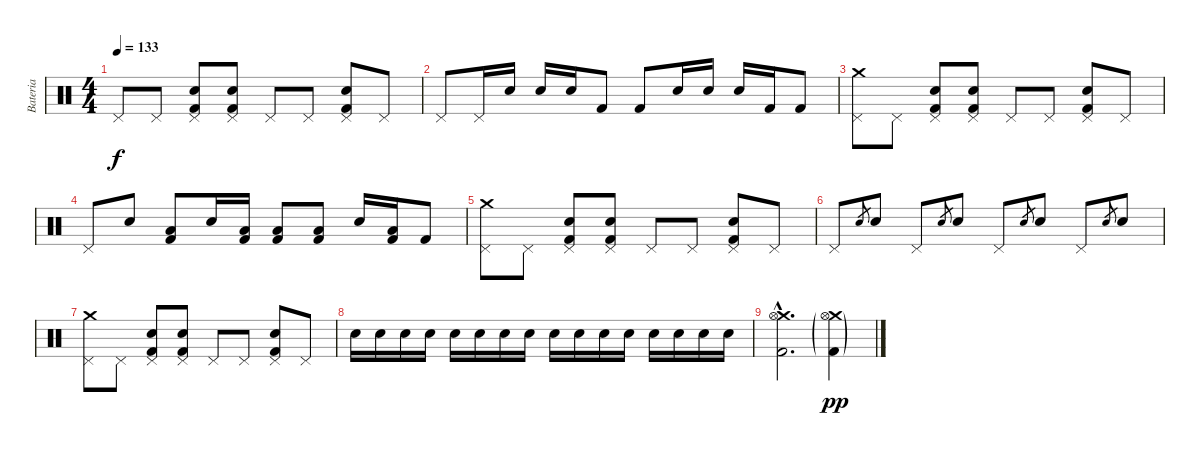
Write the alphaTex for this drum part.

\track ("Bateria" "Bateria") {instrument percussion}
\staff {score}
\articulation defaults
\ts (4 4)
\tempo 133
\clef neutral
\ks c "Pedal Hi-Hat (hit)".8{dy f} "Pedal Hi-Hat (hit)".8
("Kick (hit) 2" "Pedal Hi-Hat (hit)" "Electric Snare (hit)").8 ("Kick (hit) 2" "Pedal Hi-Hat (hit)" "Electric Snare (hit)").8 "Pedal Hi-Hat (hit)".8 "Pedal Hi-Hat (hit)".8 ("Kick (hit) 2" "Pedal Hi-Hat (hit)" "Electric Snare (hit)").8 "Pedal Hi-Hat (hit)".8 |
"Pedal Hi-Hat (hit)".8 "Pedal Hi-Hat (hit)".16 "Electric Snare (hit)".16 "Electric Snare (hit)".16 "Electric Snare (hit)".16 "Kick (hit) 2".8 "Kick (hit) 2".8 "Electric Snare (hit)".16 "Electric Snare (hit)".16 "Electric Snare (hit)".16 "Kick (hit) 2".16 "Kick (hit) 2".8 |
("Crash medium (hit)" "Pedal Hi-Hat (hit)").8 "Pedal Hi-Hat (hit)".8 ("Kick (hit) 2" "Pedal Hi-Hat (hit)" "Electric Snare (hit)").8 ("Kick (hit) 2" "Pedal Hi-Hat (hit)" "Electric Snare (hit)").8 "Pedal Hi-Hat (hit)".8 "Pedal Hi-Hat (hit)".8 ("Kick (hit) 2" "Pedal Hi-Hat (hit)" "Electric Snare (hit)").8 "Pedal Hi-Hat (hit)".8 |
"Pedal Hi-Hat (hit)".8 "Electric Snare (hit)".8 ("Kick (hit) 2" "Low Tom (hit)").8 "Electric Snare (hit)".16 ("Kick (hit) 2" "Low Tom (hit)").16 ("Kick (hit) 2" "Low Tom (hit)").8 ("Kick (hit) 2" "Low Tom (hit)").8 "Electric Snare (hit)".16 ("Kick (hit) 2" "Low Tom (hit)").16 "Kick (hit) 2".8 |
("Crash medium (hit)" "Pedal Hi-Hat (hit)").8 "Pedal Hi-Hat (hit)".8 ("Kick (hit) 2" "Pedal Hi-Hat (hit)" "Electric Snare (hit)").8 ("Kick (hit) 2" "Pedal Hi-Hat (hit)" "Electric Snare (hit)").8 "Pedal Hi-Hat (hit)".8 "Pedal Hi-Hat (hit)".8 ("Kick (hit) 2" "Pedal Hi-Hat (hit)" "Electric Snare (hit)").8 "Pedal Hi-Hat (hit)".8 |
"Pedal Hi-Hat (hit)".8 "Electric Snare (hit)".8{gr} "Electric Snare (hit)".8 "Pedal Hi-Hat (hit)".8 "Electric Snare (hit)".8{gr} "Electric Snare (hit)".8 "Pedal Hi-Hat (hit)".8 "Electric Snare (hit)".8{gr} "Electric Snare (hit)".8 "Pedal Hi-Hat (hit)".8 "Electric Snare (hit)".8{gr} "Electric Snare (hit)".8 |
("Crash medium (hit)" "Pedal Hi-Hat (hit)").8 "Pedal Hi-Hat (hit)".8 ("Kick (hit) 2" "Pedal Hi-Hat (hit)" "Electric Snare (hit)").8 ("Kick (hit) 2" "Pedal Hi-Hat (hit)" "Electric Snare (hit)").8 "Pedal Hi-Hat (hit)".8 "Pedal Hi-Hat (hit)".8 ("Kick (hit) 2" "Pedal Hi-Hat (hit)" "Electric Snare (hit)").8 "Pedal Hi-Hat (hit)".8 |
"Electric Snare (hit)".16 "Electric Snare (hit)".16 "Electric Snare (hit)".16 "Electric Snare (hit)".16 "Electric Snare (hit)".16 "Electric Snare (hit)".16 "Electric Snare (hit)".16 "Electric Snare (hit)".16 "Electric Snare (hit)".16 "Electric Snare (hit)".16 "Electric Snare (hit)".16 "Electric Snare (hit)".16 "Electric Snare (hit)".16 "Electric Snare (hit)".16 "Electric Snare (hit)".16 "Electric Snare (hit)".16 |
("Crash medium (hit)"{hac} "Kick (hit) 2"{hac} "Hi-Hat (open)"{hac}).2{d} ("Crash medium (hit)"{g} "Kick (hit) 2"{g} "Hi-Hat (open)"{g}).4{dy pp}
